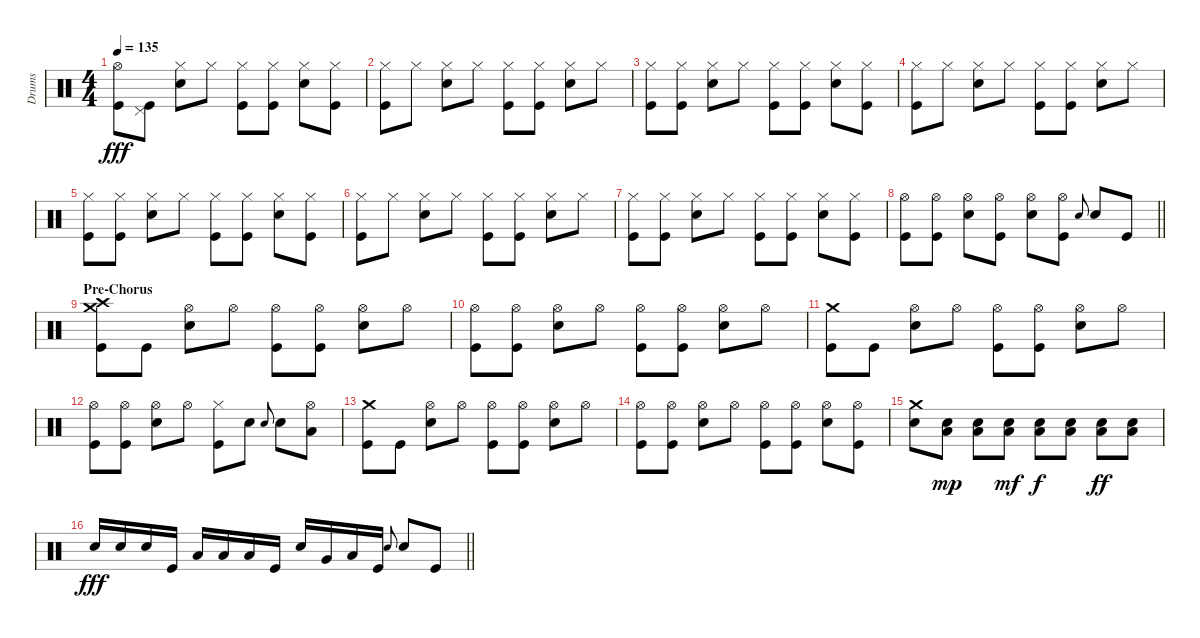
\track ("Drums" "Drums") {instrument percussion}
\staff {score}
\articulation defaults
\ts (4 4)
\tempo 135
\clef neutral
\ks c
("Hi-Hat (open)" "Kick (hit)").8{dy fff} ("Pedal Hi-Hat (hit)" "Kick (hit)").8 ("Hi-Hat (closed)" "Snare (hit) 2").8 "Hi-Hat (closed)".8 ("Hi-Hat (closed)" "Kick (hit)").8 ("Hi-Hat (closed)" "Kick (hit)").8 ("Hi-Hat (closed)" "Snare (hit) 2").8 ("Hi-Hat (closed)" "Kick (hit)").8 |
("Hi-Hat (closed)" "Kick (hit)").8 "Hi-Hat (closed)".8 ("Hi-Hat (closed)" "Snare (hit) 2").8 "Hi-Hat (closed)".8 ("Hi-Hat (closed)" "Kick (hit)").8 ("Hi-Hat (closed)" "Kick (hit)").8 ("Hi-Hat (closed)" "Snare (hit) 2").8 "Hi-Hat (closed)".8 |
("Hi-Hat (closed)" "Kick (hit)").8 ("Hi-Hat (closed)" "Kick (hit)").8 ("Hi-Hat (closed)" "Snare (hit) 2").8 "Hi-Hat (closed)".8 ("Hi-Hat (closed)" "Kick (hit)").8 ("Hi-Hat (closed)" "Kick (hit)").8 ("Hi-Hat (closed)" "Snare (hit) 2").8 ("Hi-Hat (closed)" "Kick (hit)").8 |
("Hi-Hat (closed)" "Kick (hit)").8 "Hi-Hat (closed)".8 ("Hi-Hat (closed)" "Snare (hit) 2").8 "Hi-Hat (closed)".8 ("Hi-Hat (closed)" "Kick (hit)").8 ("Hi-Hat (closed)" "Kick (hit)").8 ("Hi-Hat (closed)" "Snare (hit) 2").8 "Hi-Hat (closed)".8 |
("Hi-Hat (closed)" "Kick (hit)").8 ("Hi-Hat (closed)" "Kick (hit)").8 ("Hi-Hat (closed)" "Snare (hit) 2").8 "Hi-Hat (closed)".8 ("Hi-Hat (closed)" "Kick (hit)").8 ("Hi-Hat (closed)" "Kick (hit)").8 ("Hi-Hat (closed)" "Snare (hit) 2").8 ("Hi-Hat (closed)" "Kick (hit)").8 |
("Hi-Hat (closed)" "Kick (hit)").8 "Hi-Hat (closed)".8 ("Hi-Hat (closed)" "Snare (hit) 2").8 "Hi-Hat (closed)".8 ("Hi-Hat (closed)" "Kick (hit)").8 ("Hi-Hat (closed)" "Kick (hit)").8 ("Hi-Hat (closed)" "Snare (hit) 2").8 "Hi-Hat (closed)".8 |
("Hi-Hat (closed)" "Kick (hit)").8 ("Hi-Hat (closed)" "Kick (hit)").8 ("Hi-Hat (closed)" "Snare (hit) 2").8 "Hi-Hat (closed)".8 ("Hi-Hat (closed)" "Kick (hit)").8 ("Hi-Hat (closed)" "Kick (hit)").8 ("Hi-Hat (closed)" "Snare (hit) 2").8 ("Hi-Hat (closed)" "Kick (hit)").8 |
\barLineRight lightlight
("Hi-Hat (open)" "Kick (hit)").8 ("Hi-Hat (open)" "Kick (hit)").8 ("Hi-Hat (open)" "Snare (hit) 2").8 ("Hi-Hat (open)" "Kick (hit)").8 ("Hi-Hat (open)" "Snare (hit) 2").8 ("Hi-Hat (open)" "Kick (hit)").8 "Snare (hit) 2".8{gr onbeat} "Snare (hit) 2".8 "Kick (hit)".8 |
\section ("" "Pre-Chorus")
("Crash medium (hit)" "Crash high (hit)" "Kick (hit)").8 "Kick (hit)".8 ("Hi-Hat (open)" "Snare (hit) 2").8 "Hi-Hat (open)".8 ("Hi-Hat (open)" "Kick (hit)").8 ("Hi-Hat (open)" "Kick (hit)").8 ("Hi-Hat (open)" "Snare (hit) 2").8 "Hi-Hat (open)".8 |
("Hi-Hat (open)" "Kick (hit)").8 ("Hi-Hat (open)" "Kick (hit)").8 ("Hi-Hat (open)" "Snare (hit) 2").8 "Hi-Hat (open)".8 ("Hi-Hat (open)" "Kick (hit)").8 ("Hi-Hat (open)" "Kick (hit)").8 ("Hi-Hat (open)" "Snare (hit) 2").8 "Hi-Hat (open)".8 |
("Crash medium (hit)" "Kick (hit)").8 "Kick (hit)".8 ("Hi-Hat (open)" "Snare (hit) 2").8 "Hi-Hat (open)".8 ("Hi-Hat (open)" "Kick (hit)").8 ("Hi-Hat (open)" "Kick (hit)").8 ("Hi-Hat (open)" "Snare (hit) 2").8 "Hi-Hat (open)".8 |
("Hi-Hat (open)" "Kick (hit)").8 ("Hi-Hat (open)" "Kick (hit)").8 ("Hi-Hat (open)" "Snare (hit) 2").8 "Hi-Hat (open)".8 ("Hi-Hat (closed)" "Kick (hit)").8 "Snare (hit) 2".8 "Snare (hit) 2".8{gr onbeat} "Snare (hit) 2".8 ("Hi-Hat (open)" "Low Tom (hit)").8 |
("Crash medium (hit)" "Kick (hit)").8 "Kick (hit)".8 ("Hi-Hat (open)" "Snare (hit) 2").8 "Hi-Hat (open)".8 ("Hi-Hat (open)" "Kick (hit)").8 ("Hi-Hat (open)" "Kick (hit)").8 ("Hi-Hat (open)" "Snare (hit) 2").8 "Hi-Hat (open)".8 |
("Hi-Hat (open)" "Kick (hit)").8 ("Hi-Hat (open)" "Kick (hit)").8 ("Hi-Hat (open)" "Snare (hit) 2").8 "Hi-Hat (open)".8 ("Hi-Hat (open)" "Kick (hit)").8 ("Hi-Hat (open)" "Kick (hit)").8 ("Hi-Hat (open)" "Snare (hit) 2").8 ("Hi-Hat (open)" "Kick (hit)").8 |
("Crash medium (hit)" "Snare (hit) 2").8 ("Low Floor Tom (hit)" "Snare (hit) 2").8{dy mp} ("Low Floor Tom (hit)" "Snare (hit) 2").8 ("Low Floor Tom (hit)" "Snare (hit) 2").8{dy mf} ("Low Floor Tom (hit)" "Snare (hit) 2").8{dy f} ("Low Floor Tom (hit)" "Snare (hit) 2").8 ("Low Floor Tom (hit)" "Snare (hit) 2").8{dy ff} ("Low Floor Tom (hit)" "Snare (hit) 2").8 |
\barLineRight lightlight "Snare (hit) 2".16{dy fff} "Snare (hit) 2".16 "Snare (hit) 2".16 "Kick (hit)".16 "Low Tom (hit)".16 "Low Tom (hit)".16 "Low Tom (hit)".16 "Kick (hit)".16 "Snare (hit) 2".16 "Very Low Tom (hit)".16 "Low Floor Tom (hit)".16 "Kick (hit)".16 "Snare (hit) 2".8{gr onbeat} "Snare (hit) 2".8 "Kick (hit)".8
